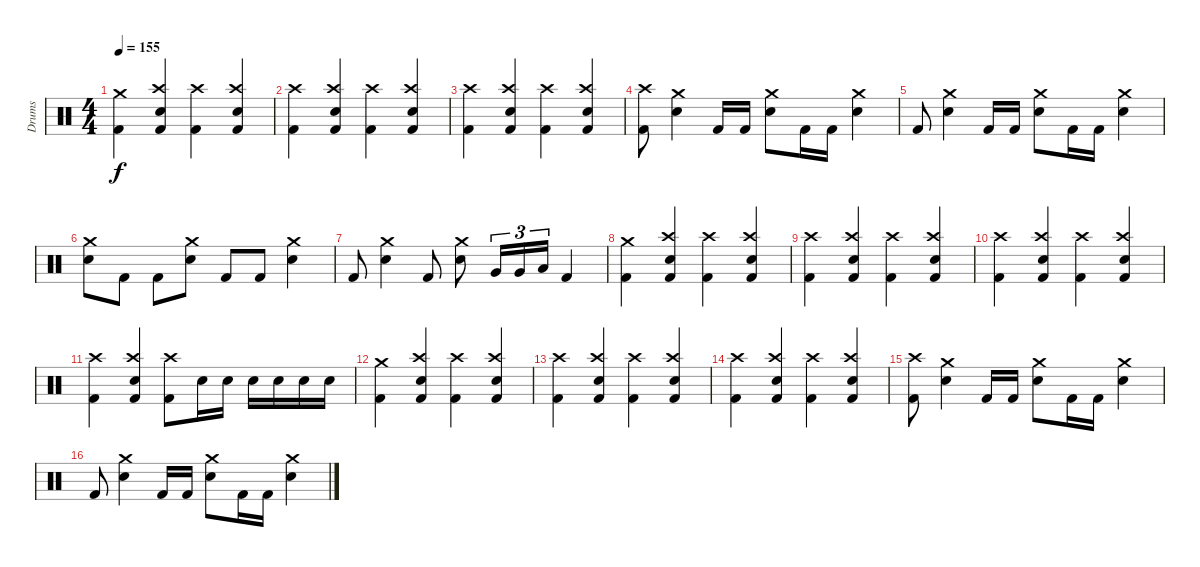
\track ("Drums" "Drums") {instrument percussion}
\staff {score}
\articulation defaults
\ts (4 4)
\tempo 155
\clef neutral
\ks c
("Crash medium (hit)" "Kick (hit) 2").4{dy f} ("Kick (hit) 2" "Crash high (hit)" "Electric Snare (hit)").4 ("Crash high (hit)" "Kick (hit) 2").4 ("Kick (hit) 2" "Crash high (hit)" "Electric Snare (hit)").4 |
("Crash high (hit)" "Kick (hit) 2").4 ("Kick (hit) 2" "Crash high (hit)" "Electric Snare (hit)").4 ("Crash high (hit)" "Kick (hit) 2").4 ("Kick (hit) 2" "Crash high (hit)" "Electric Snare (hit)").4 |
("Crash high (hit)" "Kick (hit) 2").4 ("Kick (hit) 2" "Crash high (hit)" "Electric Snare (hit)").4 ("Crash high (hit)" "Kick (hit) 2").4 ("Kick (hit) 2" "Crash high (hit)" "Electric Snare (hit)").4 |
("Crash high (hit)" "Kick (hit) 2").8 ("Electric Snare (hit)" "Crash medium (hit)").4 "Kick (hit) 2".16 "Kick (hit) 2".16 ("Crash medium (hit)" "Electric Snare (hit)").8 "Kick (hit) 2".16 "Kick (hit) 2".16 ("Crash medium (hit)" "Electric Snare (hit)").4 |
"Kick (hit) 2".8 ("Electric Snare (hit)" "Crash medium (hit)").4 "Kick (hit) 2".16 "Kick (hit) 2".16 ("Crash medium (hit)" "Electric Snare (hit)").8 "Kick (hit) 2".16 "Kick (hit) 2".16 ("Crash medium (hit)" "Electric Snare (hit)").4 |
("Electric Snare (hit)" "Crash medium (hit)").8 "Kick (hit) 2".8 "Kick (hit) 2".8 ("Electric Snare (hit)" "Crash medium (hit)").8 "Kick (hit) 2".8 "Kick (hit) 2".8 ("Electric Snare (hit)" "Crash medium (hit)").4 |
"Kick (hit) 2".8 ("Electric Snare (hit)" "Crash medium (hit)").4 "Kick (hit) 2".8 ("Electric Snare (hit)" "Crash medium (hit)").8 "Very Low Tom (hit)".16{tu (3 2)} "Very Low Tom (hit)".16{tu (3 2)} "Low Floor Tom (hit)".16{tu (3 2)} "Kick (hit) 2".4 |
("Crash medium (hit)" "Kick (hit) 2").4 ("Kick (hit) 2" "Crash high (hit)" "Electric Snare (hit)").4 ("Crash high (hit)" "Kick (hit) 2").4 ("Kick (hit) 2" "Crash high (hit)" "Electric Snare (hit)").4 |
("Crash high (hit)" "Kick (hit) 2").4 ("Kick (hit) 2" "Crash high (hit)" "Electric Snare (hit)").4 ("Crash high (hit)" "Kick (hit) 2").4 ("Kick (hit) 2" "Crash high (hit)" "Electric Snare (hit)").4 |
("Crash high (hit)" "Kick (hit) 2").4 ("Kick (hit) 2" "Crash high (hit)" "Electric Snare (hit)").4 ("Crash high (hit)" "Kick (hit) 2").4 ("Kick (hit) 2" "Crash high (hit)" "Electric Snare (hit)").4 |
("Crash high (hit)" "Kick (hit) 2").4 ("Kick (hit) 2" "Crash high (hit)" "Electric Snare (hit)").4 ("Crash high (hit)" "Kick (hit) 2").8 "Electric Snare (hit)".16 "Electric Snare (hit)".16 "Electric Snare (hit)".16 "Electric Snare (hit)".16 "Electric Snare (hit)".16 "Electric Snare (hit)".16 |
("Crash medium (hit)" "Kick (hit) 2").4 ("Kick (hit) 2" "Crash high (hit)" "Electric Snare (hit)").4 ("Crash high (hit)" "Kick (hit) 2").4 ("Kick (hit) 2" "Crash high (hit)" "Electric Snare (hit)").4 |
("Crash high (hit)" "Kick (hit) 2").4 ("Kick (hit) 2" "Crash high (hit)" "Electric Snare (hit)").4 ("Crash high (hit)" "Kick (hit) 2").4 ("Kick (hit) 2" "Crash high (hit)" "Electric Snare (hit)").4 |
("Crash high (hit)" "Kick (hit) 2").4 ("Kick (hit) 2" "Crash high (hit)" "Electric Snare (hit)").4 ("Crash high (hit)" "Kick (hit) 2").4 ("Kick (hit) 2" "Crash high (hit)" "Electric Snare (hit)").4 |
("Crash high (hit)" "Kick (hit) 2").8 ("Electric Snare (hit)" "Crash medium (hit)").4 "Kick (hit) 2".16 "Kick (hit) 2".16 ("Crash medium (hit)" "Electric Snare (hit)").8 "Kick (hit) 2".16 "Kick (hit) 2".16 ("Crash medium (hit)" "Electric Snare (hit)").4 |
"Kick (hit) 2".8 ("Electric Snare (hit)" "Crash medium (hit)").4 "Kick (hit) 2".16 "Kick (hit) 2".16 ("Crash medium (hit)" "Electric Snare (hit)").8 "Kick (hit) 2".16 "Kick (hit) 2".16 ("Crash medium (hit)" "Electric Snare (hit)").4
